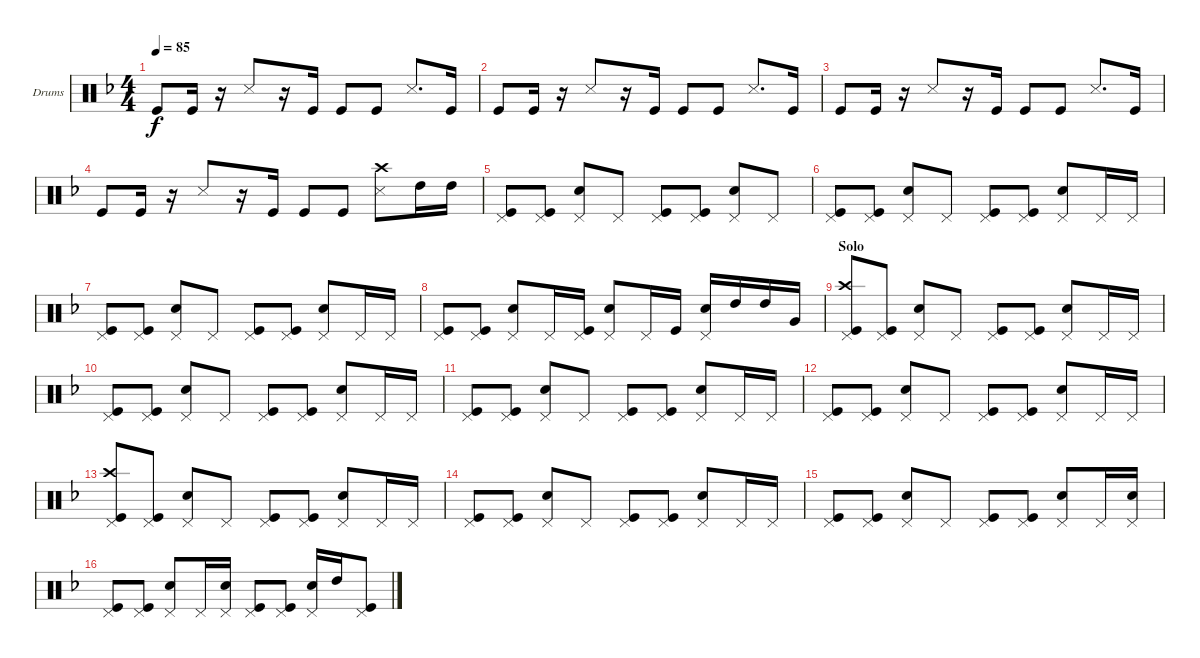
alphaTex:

\defaultSystemsLayout 4
\bracketExtendMode groupsimilarinstruments
\firstSystemTrackNameOrientation horizontal
\otherSystemsTrackNameOrientation horizontal
\track ("Drumkit" "Drums") {instrument percussion}
\staff {score}
\articulation defaults
\ts (4 4)
\tempo 85
\clef neutral
\ks dminor "Kick (hit)".8{dy f} "Kick (hit)".16
r.16 "Snare (side stick) 3".8 r.16 "Kick (hit)".16 "Kick (hit)".8 "Kick (hit)".8 "Snare (side stick) 3".8{d} "Kick (hit)".16 |
"Kick (hit)".8 "Kick (hit)".16 r.16 "Snare (side stick) 3".8 r.16 "Kick (hit)".16 "Kick (hit)".8 "Kick (hit)".8 "Snare (side stick) 3".8{d} "Kick (hit)".16 |
"Kick (hit)".8 "Kick (hit)".16 r.16 "Snare (side stick) 3".8 r.16 "Kick (hit)".16 "Kick (hit)".8 "Kick (hit)".8 "Snare (side stick) 3".8{d} "Kick (hit)".16 |
"Kick (hit)".8 "Kick (hit)".16 r.16 "Snare (side stick) 3".8 r.16 "Kick (hit)".16 "Kick (hit)".8 "Kick (hit)".8 ("Crash high (hit)" "Snare (side stick) 3").8 "High Tom (hit)".16 "High Tom (hit)".16 |
("Pedal Hi-Hat (hit)" "Kick (hit)").8 ("Pedal Hi-Hat (hit)" "Kick (hit)").8 ("Pedal Hi-Hat (hit)" "Snare (hit) 2").8 "Pedal Hi-Hat (hit)".8 ("Pedal Hi-Hat (hit)" "Kick (hit)").8 ("Pedal Hi-Hat (hit)" "Kick (hit)").8 ("Pedal Hi-Hat (hit)" "Snare (hit) 2").8 "Pedal Hi-Hat (hit)".8 |
("Pedal Hi-Hat (hit)" "Kick (hit)").8 ("Pedal Hi-Hat (hit)" "Kick (hit)").8 ("Pedal Hi-Hat (hit)" "Snare (hit) 2").8 "Pedal Hi-Hat (hit)".8 ("Pedal Hi-Hat (hit)" "Kick (hit)").8 ("Pedal Hi-Hat (hit)" "Kick (hit)").8 ("Pedal Hi-Hat (hit)" "Snare (hit) 2").8 "Pedal Hi-Hat (hit)".16 "Pedal Hi-Hat (hit)".16 |
("Pedal Hi-Hat (hit)" "Kick (hit)").8 ("Pedal Hi-Hat (hit)" "Kick (hit)").8 ("Pedal Hi-Hat (hit)" "Snare (hit) 2").8 "Pedal Hi-Hat (hit)".8 ("Pedal Hi-Hat (hit)" "Kick (hit)").8 ("Pedal Hi-Hat (hit)" "Kick (hit)").8 ("Pedal Hi-Hat (hit)" "Snare (hit) 2").8 "Pedal Hi-Hat (hit)".16 "Pedal Hi-Hat (hit)".16 |
("Pedal Hi-Hat (hit)" "Kick (hit)").8 ("Pedal Hi-Hat (hit)" "Kick (hit)").8 ("Pedal Hi-Hat (hit)" "Snare (hit) 2").8 "Pedal Hi-Hat (hit)".16 ("Pedal Hi-Hat (hit)" "Kick (hit)").16 ("Pedal Hi-Hat (hit)" "Snare (hit) 2").8 "Pedal Hi-Hat (hit)".16 "Kick (hit)".16 ("Pedal Hi-Hat (hit)" "Snare (hit) 2").16 "High Tom (hit)".16 "High Tom (hit)".16 "Very Low Tom (hit)".16 |
\section ("" "Solo")
("Pedal Hi-Hat (hit)" "Crash high (hit)" "Kick (hit)").8 ("Pedal Hi-Hat (hit)" "Kick (hit)").8 ("Pedal Hi-Hat (hit)" "Snare (hit) 2").8 "Pedal Hi-Hat (hit)".8 ("Pedal Hi-Hat (hit)" "Kick (hit)").8 ("Pedal Hi-Hat (hit)" "Kick (hit)").8 ("Pedal Hi-Hat (hit)" "Snare (hit) 2").8 "Pedal Hi-Hat (hit)".16 "Pedal Hi-Hat (hit)".16 |
("Pedal Hi-Hat (hit)" "Kick (hit)").8 ("Pedal Hi-Hat (hit)" "Kick (hit)").8 ("Pedal Hi-Hat (hit)" "Snare (hit) 2").8 "Pedal Hi-Hat (hit)".8 ("Pedal Hi-Hat (hit)" "Kick (hit)").8 ("Pedal Hi-Hat (hit)" "Kick (hit)").8 ("Pedal Hi-Hat (hit)" "Snare (hit) 2").8 "Pedal Hi-Hat (hit)".16 "Pedal Hi-Hat (hit)".16 |
("Pedal Hi-Hat (hit)" "Kick (hit)").8 ("Pedal Hi-Hat (hit)" "Kick (hit)").8 ("Pedal Hi-Hat (hit)" "Snare (hit) 2").8 "Pedal Hi-Hat (hit)".8 ("Pedal Hi-Hat (hit)" "Kick (hit)").8 ("Pedal Hi-Hat (hit)" "Kick (hit)").8 ("Pedal Hi-Hat (hit)" "Snare (hit) 2").8 "Pedal Hi-Hat (hit)".16 "Pedal Hi-Hat (hit)".16 |
("Pedal Hi-Hat (hit)" "Kick (hit)").8 ("Pedal Hi-Hat (hit)" "Kick (hit)").8 ("Pedal Hi-Hat (hit)" "Snare (hit) 2").8 "Pedal Hi-Hat (hit)".8 ("Pedal Hi-Hat (hit)" "Kick (hit)").8 ("Pedal Hi-Hat (hit)" "Kick (hit)").8 ("Pedal Hi-Hat (hit)" "Snare (hit) 2").8 "Pedal Hi-Hat (hit)".16 "Pedal Hi-Hat (hit)".16 |
("Pedal Hi-Hat (hit)" "Crash high (hit)" "Kick (hit)").8 ("Pedal Hi-Hat (hit)" "Kick (hit)").8 ("Pedal Hi-Hat (hit)" "Snare (hit) 2").8 "Pedal Hi-Hat (hit)".8 ("Pedal Hi-Hat (hit)" "Kick (hit)").8 ("Pedal Hi-Hat (hit)" "Kick (hit)").8 ("Pedal Hi-Hat (hit)" "Snare (hit) 2").8 "Pedal Hi-Hat (hit)".16 "Pedal Hi-Hat (hit)".16 |
("Pedal Hi-Hat (hit)" "Kick (hit)").8 ("Pedal Hi-Hat (hit)" "Kick (hit)").8 ("Pedal Hi-Hat (hit)" "Snare (hit) 2").8 "Pedal Hi-Hat (hit)".8 ("Pedal Hi-Hat (hit)" "Kick (hit)").8 ("Pedal Hi-Hat (hit)" "Kick (hit)").8 ("Pedal Hi-Hat (hit)" "Snare (hit) 2").8 "Pedal Hi-Hat (hit)".16 "Pedal Hi-Hat (hit)".16 |
("Pedal Hi-Hat (hit)" "Kick (hit)").8 ("Pedal Hi-Hat (hit)" "Kick (hit)").8 ("Pedal Hi-Hat (hit)" "Snare (hit) 2").8 "Pedal Hi-Hat (hit)".8 ("Pedal Hi-Hat (hit)" "Kick (hit)").8 ("Pedal Hi-Hat (hit)" "Kick (hit)").8 ("Pedal Hi-Hat (hit)" "Snare (hit) 2").8 "Pedal Hi-Hat (hit)".16 ("Pedal Hi-Hat (hit)" "Snare (hit) 2").16 |
("Pedal Hi-Hat (hit)" "Kick (hit)").8 ("Pedal Hi-Hat (hit)" "Kick (hit)").8 ("Pedal Hi-Hat (hit)" "Snare (hit) 2").8 "Pedal Hi-Hat (hit)".16 ("Pedal Hi-Hat (hit)" "Snare (hit) 2").16 ("Pedal Hi-Hat (hit)" "Kick (hit)").8 ("Pedal Hi-Hat (hit)" "Kick (hit)").8 ("Pedal Hi-Hat (hit)" "Snare (hit) 2").16 "High Tom (hit)".16 ("Pedal Hi-Hat (hit)" "Kick (hit)").8
